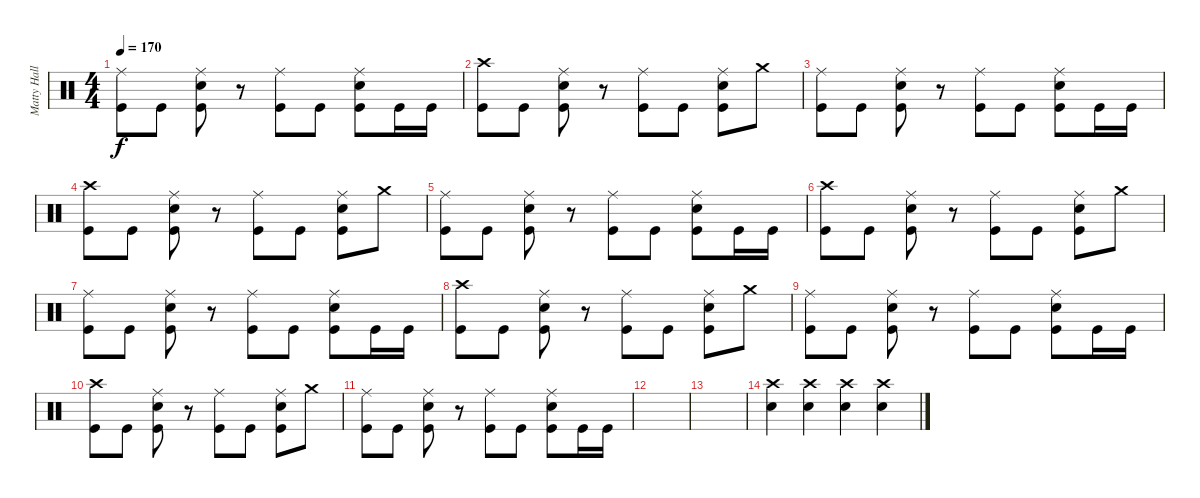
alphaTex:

\track ("Matty Hallick - Drums" "Matty Hall") {instrument percussion}
\staff {score}
\articulation defaults
\ts (4 4)
\tempo 170
\clef neutral
\ks c
("Ride (middle)" "Kick (hit)").8{dy f} "Kick (hit)".8 ("Ride (middle)" "Snare (hit) 2" "Kick (hit)").8 r.8 ("Ride (middle)" "Kick (hit)").8 "Kick (hit)".8 ("Ride (middle)" "Snare (hit) 2" "Kick (hit)").8 "Kick (hit)".16 "Kick (hit)".16 |
("Crash high (hit)" "Kick (hit)").8 "Kick (hit)".8 ("Ride (middle)" "Snare (hit) 2" "Kick (hit)").8 r.8 ("Ride (middle)" "Kick (hit)").8 "Kick (hit)".8 ("Ride (middle)" "Snare (hit) 2" "Kick (hit)").8 "Crash medium (hit)".8 |
("Ride (middle)" "Kick (hit)").8 "Kick (hit)".8 ("Ride (middle)" "Snare (hit) 2" "Kick (hit)").8 r.8 ("Ride (middle)" "Kick (hit)").8 "Kick (hit)".8 ("Ride (middle)" "Snare (hit) 2" "Kick (hit)").8 "Kick (hit)".16 "Kick (hit)".16 |
("Crash high (hit)" "Kick (hit)").8 "Kick (hit)".8 ("Ride (middle)" "Snare (hit) 2" "Kick (hit)").8 r.8 ("Ride (middle)" "Kick (hit)").8 "Kick (hit)".8 ("Ride (middle)" "Snare (hit) 2" "Kick (hit)").8 "Crash medium (hit)".8 |
("Ride (middle)" "Kick (hit)").8 "Kick (hit)".8 ("Ride (middle)" "Snare (hit) 2" "Kick (hit)").8 r.8 ("Ride (middle)" "Kick (hit)").8 "Kick (hit)".8 ("Ride (middle)" "Snare (hit) 2" "Kick (hit)").8 "Kick (hit)".16 "Kick (hit)".16 |
("Crash high (hit)" "Kick (hit)").8 "Kick (hit)".8 ("Ride (middle)" "Snare (hit) 2" "Kick (hit)").8 r.8 ("Ride (middle)" "Kick (hit)").8 "Kick (hit)".8 ("Ride (middle)" "Snare (hit) 2" "Kick (hit)").8 "Crash medium (hit)".8 |
("Ride (middle)" "Kick (hit)").8 "Kick (hit)".8 ("Ride (middle)" "Snare (hit) 2" "Kick (hit)").8 r.8 ("Ride (middle)" "Kick (hit)").8 "Kick (hit)".8 ("Ride (middle)" "Snare (hit) 2" "Kick (hit)").8 "Kick (hit)".16 "Kick (hit)".16 |
("Crash high (hit)" "Kick (hit)").8 "Kick (hit)".8 ("Ride (middle)" "Snare (hit) 2" "Kick (hit)").8 r.8 ("Ride (middle)" "Kick (hit)").8 "Kick (hit)".8 ("Ride (middle)" "Snare (hit) 2" "Kick (hit)").8 "Crash medium (hit)".8 |
("Ride (middle)" "Kick (hit)").8 "Kick (hit)".8 ("Ride (middle)" "Snare (hit) 2" "Kick (hit)").8 r.8 ("Ride (middle)" "Kick (hit)").8 "Kick (hit)".8 ("Ride (middle)" "Snare (hit) 2" "Kick (hit)").8 "Kick (hit)".16 "Kick (hit)".16 |
("Crash high (hit)" "Kick (hit)").8 "Kick (hit)".8 ("Ride (middle)" "Snare (hit) 2" "Kick (hit)").8 r.8 ("Ride (middle)" "Kick (hit)").8 "Kick (hit)".8 ("Ride (middle)" "Snare (hit) 2" "Kick (hit)").8 "Crash medium (hit)".8 |
("Ride (middle)" "Kick (hit)").8 "Kick (hit)".8 ("Ride (middle)" "Snare (hit) 2" "Kick (hit)").8 r.8 ("Ride (middle)" "Kick (hit)").8 "Kick (hit)".8 ("Ride (middle)" "Snare (hit) 2" "Kick (hit)").8 "Kick (hit)".16 "Kick (hit)".16 |
|
|
("Crash high (hit)" "Snare (hit) 2").4 ("Crash high (hit)" "Snare (hit) 2").4 ("Crash high (hit)" "Snare (hit) 2").4 ("Crash high (hit)" "Snare (hit) 2").4
